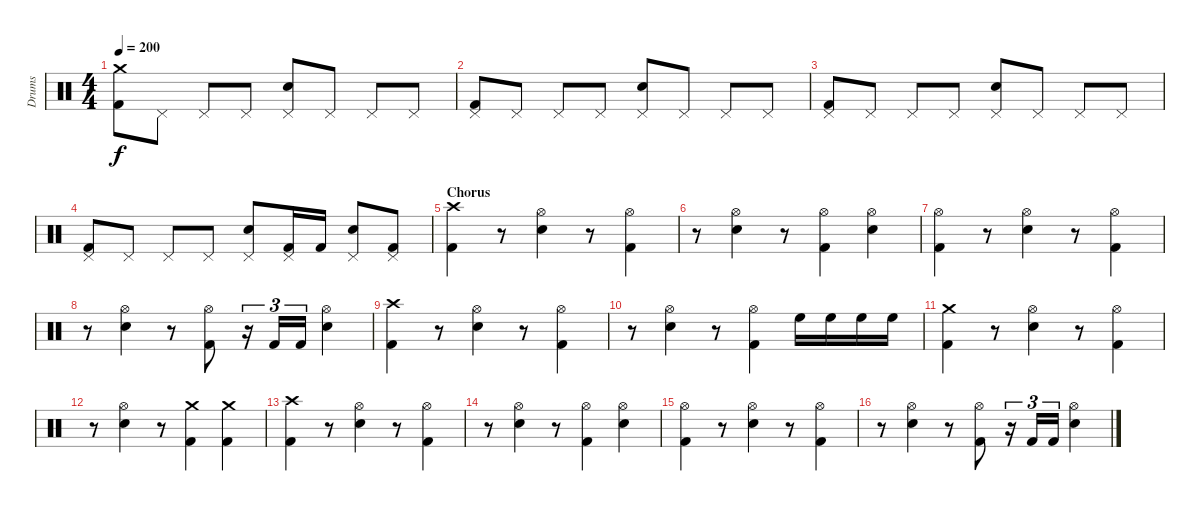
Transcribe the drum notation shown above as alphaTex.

\track ("Drums" "Drums") {instrument percussion}
\staff {score}
\articulation defaults
\ts (4 4)
\tempo 200
\clef neutral
\ks c
("Crash medium (hit)" "Kick (hit) 2").8{dy f} "Pedal Hi-Hat (hit)".8 "Pedal Hi-Hat (hit)".8 "Pedal Hi-Hat (hit)".8 ("Pedal Hi-Hat (hit)" "Snare (hit) 2").8 "Pedal Hi-Hat (hit)".8 "Pedal Hi-Hat (hit)".8 "Pedal Hi-Hat (hit)".8 |
("Pedal Hi-Hat (hit)" "Kick (hit) 2").8 "Pedal Hi-Hat (hit)".8 "Pedal Hi-Hat (hit)".8 "Pedal Hi-Hat (hit)".8 ("Pedal Hi-Hat (hit)" "Snare (hit) 2").8 "Pedal Hi-Hat (hit)".8 "Pedal Hi-Hat (hit)".8 "Pedal Hi-Hat (hit)".8 |
("Pedal Hi-Hat (hit)" "Kick (hit) 2").8 "Pedal Hi-Hat (hit)".8 "Pedal Hi-Hat (hit)".8 "Pedal Hi-Hat (hit)".8 ("Pedal Hi-Hat (hit)" "Snare (hit) 2").8 "Pedal Hi-Hat (hit)".8 "Pedal Hi-Hat (hit)".8 "Pedal Hi-Hat (hit)".8 |
("Pedal Hi-Hat (hit)" "Kick (hit) 2").8 "Pedal Hi-Hat (hit)".8 "Pedal Hi-Hat (hit)".8 "Pedal Hi-Hat (hit)".8 ("Pedal Hi-Hat (hit)" "Snare (hit) 2").8 ("Pedal Hi-Hat (hit)" "Kick (hit) 2").16 "Kick (hit) 2".16 ("Pedal Hi-Hat (hit)" "Snare (hit) 2").8 ("Pedal Hi-Hat (hit)" "Kick (hit) 2").8 |
\section ("" "Chorus")
("Crash high (hit)" "Kick (hit) 2").4 r.8 ("Hi-Hat (open)" "Snare (hit) 2").4 r.8 ("Hi-Hat (open)" "Kick (hit) 2").4 |
r.8 ("Hi-Hat (open)" "Snare (hit) 2").4 r.8 ("Hi-Hat (open)" "Kick (hit) 2").4 ("Hi-Hat (open)" "Snare (hit) 2").4 |
("Hi-Hat (open)" "Kick (hit) 2").4 r.8 ("Hi-Hat (open)" "Snare (hit) 2").4 r.8 ("Hi-Hat (open)" "Kick (hit) 2").4 |
r.8 ("Hi-Hat (open)" "Snare (hit) 2").4 r.8 ("Hi-Hat (open)" "Kick (hit) 2").8 r.16{tu (3 2)} "Kick (hit) 2".16{tu (3 2)} "Kick (hit) 2".16{tu (3 2)} ("Hi-Hat (open)" "Snare (hit) 2").4 |
("Crash high (hit)" "Kick (hit) 2").4 r.8 ("Hi-Hat (open)" "Snare (hit) 2").4 r.8 ("Hi-Hat (open)" "Kick (hit) 2").4 |
r.8 ("Hi-Hat (open)" "Snare (hit) 2").4 r.8 ("Hi-Hat (open)" "Kick (hit) 2").4 "High Floor Tom (hit)".16 "High Floor Tom (hit)".16 "High Floor Tom (hit)".16 "High Floor Tom (hit)".16 |
("Crash medium (hit)" "Kick (hit) 2").4 r.8 ("Hi-Hat (open)" "Snare (hit) 2").4 r.8 ("Hi-Hat (open)" "Kick (hit) 2").4 |
r.8 ("Hi-Hat (open)" "Snare (hit) 2").4 r.8 ("Crash medium (hit)" "Kick (hit) 2").4 ("Crash medium (hit)" "Kick (hit) 2").4 |
("Crash high (hit)" "Kick (hit) 2").4 r.8 ("Hi-Hat (open)" "Snare (hit) 2").4 r.8 ("Hi-Hat (open)" "Kick (hit) 2").4 |
r.8 ("Hi-Hat (open)" "Snare (hit) 2").4 r.8 ("Hi-Hat (open)" "Kick (hit) 2").4 ("Hi-Hat (open)" "Snare (hit) 2").4 |
("Hi-Hat (open)" "Kick (hit) 2").4 r.8 ("Hi-Hat (open)" "Snare (hit) 2").4 r.8 ("Hi-Hat (open)" "Kick (hit) 2").4 |
r.8 ("Hi-Hat (open)" "Snare (hit) 2").4 r.8 ("Hi-Hat (open)" "Kick (hit) 2").8 r.16{tu (3 2)} "Kick (hit) 2".16{tu (3 2)} "Kick (hit) 2".16{tu (3 2)} ("Hi-Hat (open)" "Snare (hit) 2").4
